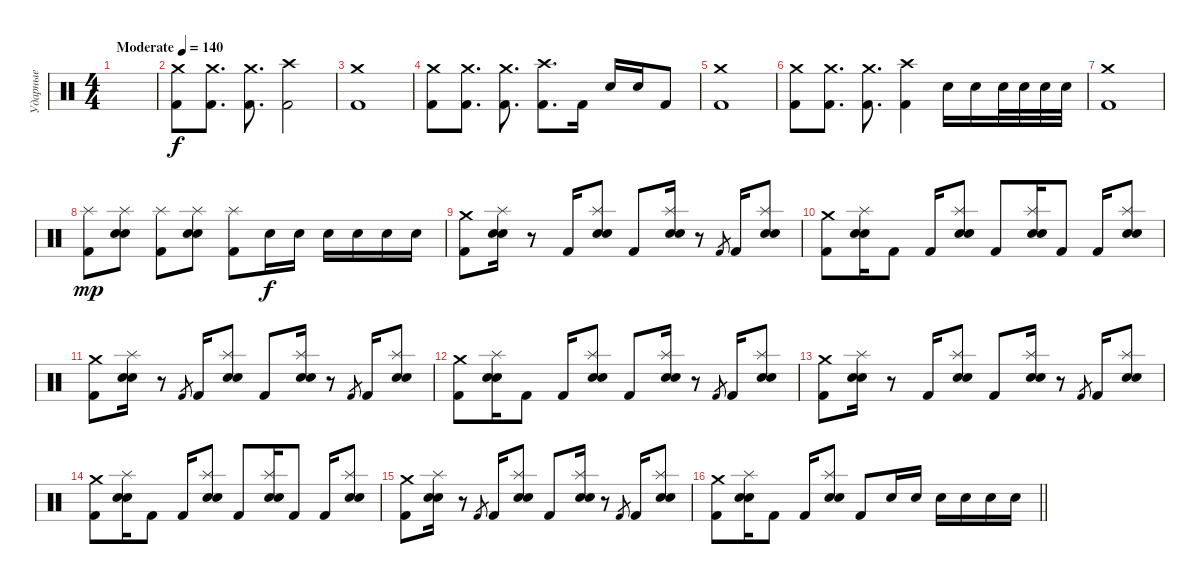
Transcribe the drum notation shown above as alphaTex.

\track ("Ударные" "Ударные") {instrument percussion}
\staff {score}
\articulation defaults
\ts (4 4)
\tempo (140 "Moderate")
\clef neutral
\ks c
|
("Crash medium (hit)" "Kick (hit) 2").8 ("Crash medium (hit)" "Kick (hit) 2").8{d} ("Crash medium (hit)" "Kick (hit) 2").8{d} ("Crash high (hit)" "Kick (hit) 2").2 |
("Crash medium (hit)" "Kick (hit) 2").1 |
("Crash medium (hit)" "Kick (hit) 2").8 ("Crash medium (hit)" "Kick (hit) 2").8{d} ("Crash medium (hit)" "Kick (hit) 2").8{d} ("Crash high (hit)" "Kick (hit) 2").8{d} "Kick (hit) 2".16 "Electric Snare (hit)".16 "Electric Snare (hit)".16 "Kick (hit) 2".8 |
("Crash medium (hit)" "Kick (hit) 2").1 |
("Crash medium (hit)" "Kick (hit) 2").8 ("Crash medium (hit)" "Kick (hit) 2").8{d} ("Crash medium (hit)" "Kick (hit) 2").8{d} ("Crash high (hit)" "Kick (hit) 2").4 "Electric Snare (hit)".16 "Electric Snare (hit)".16 "Electric Snare (hit)".32 "Electric Snare (hit)".32 "Electric Snare (hit)".32 "Electric Snare (hit)".32 |
("Crash medium (hit)" "Kick (hit) 2").1 |
("Splash (hit)" "Kick (hit) 2").8{dy mp} ("Splash (hit)" "Electric Snare (hit)" "Snare (hit) 2").8 ("Splash (hit)" "Kick (hit) 2").8 ("Splash (hit)" "Electric Snare (hit)" "Snare (hit) 2").8 ("Splash (hit)" "Kick (hit) 2").8 "Electric Snare (hit)".16{dy f} "Electric Snare (hit)".16 "Electric Snare (hit)".16 "Electric Snare (hit)".16 "Electric Snare (hit)".16 "Electric Snare (hit)".16 |
("Crash medium (hit)" "Kick (hit) 2").8 ("Splash (hit)" "Electric Snare (hit)" "Snare (hit) 2").16 r.8 "Kick (hit) 2".16 ("Splash (hit)" "Electric Snare (hit)" "Snare (hit) 2").8 "Kick (hit) 2".8 ("Splash (hit)" "Electric Snare (hit)" "Snare (hit) 2").16 r.8 "Kick (hit) 2".8{gr} "Kick (hit) 2".16 ("Splash (hit)" "Electric Snare (hit)" "Snare (hit) 2").8 |
("Crash medium (hit)" "Kick (hit) 2").8 ("Splash (hit)" "Electric Snare (hit)" "Snare (hit) 2").16 "Kick (hit) 2".8 "Kick (hit) 2".16 ("Splash (hit)" "Electric Snare (hit)" "Snare (hit) 2").8 "Kick (hit) 2".8 ("Splash (hit)" "Electric Snare (hit)" "Snare (hit) 2").16 "Kick (hit) 2".8 "Kick (hit) 2".16 ("Splash (hit)" "Electric Snare (hit)" "Snare (hit) 2").8 |
("Crash medium (hit)" "Kick (hit) 2").8 ("Splash (hit)" "Electric Snare (hit)" "Snare (hit) 2").16 r.8 "Kick (hit) 2".8{gr} "Kick (hit) 2".16 ("Splash (hit)" "Electric Snare (hit)" "Snare (hit) 2").8 "Kick (hit) 2".8 ("Splash (hit)" "Electric Snare (hit)" "Snare (hit) 2").16 r.8 "Kick (hit) 2".8{gr} "Kick (hit) 2".16 ("Splash (hit)" "Electric Snare (hit)" "Snare (hit) 2").8 |
("Crash medium (hit)" "Kick (hit) 2").8 ("Splash (hit)" "Electric Snare (hit)" "Snare (hit) 2").16 "Kick (hit) 2".8 "Kick (hit) 2".16 ("Splash (hit)" "Electric Snare (hit)" "Snare (hit) 2").8 "Kick (hit) 2".8 ("Splash (hit)" "Electric Snare (hit)" "Snare (hit) 2").16 r.8 "Kick (hit) 2".8{gr} "Kick (hit) 2".16 ("Splash (hit)" "Electric Snare (hit)" "Snare (hit) 2").8 |
("Crash medium (hit)" "Kick (hit) 2").8 ("Splash (hit)" "Electric Snare (hit)" "Snare (hit) 2").16 r.8 "Kick (hit) 2".16 ("Splash (hit)" "Electric Snare (hit)" "Snare (hit) 2").8 "Kick (hit) 2".8 ("Splash (hit)" "Electric Snare (hit)" "Snare (hit) 2").16 r.8 "Kick (hit) 2".8{gr} "Kick (hit) 2".16 ("Splash (hit)" "Electric Snare (hit)" "Snare (hit) 2").8 |
("Crash medium (hit)" "Kick (hit) 2").8 ("Splash (hit)" "Electric Snare (hit)" "Snare (hit) 2").16 "Kick (hit) 2".8 "Kick (hit) 2".16 ("Splash (hit)" "Electric Snare (hit)" "Snare (hit) 2").8 "Kick (hit) 2".8 ("Splash (hit)" "Electric Snare (hit)" "Snare (hit) 2").16 "Kick (hit) 2".8 "Kick (hit) 2".16 ("Splash (hit)" "Electric Snare (hit)" "Snare (hit) 2").8 |
("Crash medium (hit)" "Kick (hit) 2").8 ("Splash (hit)" "Electric Snare (hit)" "Snare (hit) 2").16 r.8 "Kick (hit) 2".8{gr} "Kick (hit) 2".16 ("Splash (hit)" "Electric Snare (hit)" "Snare (hit) 2").8 "Kick (hit) 2".8 ("Splash (hit)" "Electric Snare (hit)" "Snare (hit) 2").16 r.8 "Kick (hit) 2".8{gr} "Kick (hit) 2".16 ("Splash (hit)" "Electric Snare (hit)" "Snare (hit) 2").8 |
\barLineRight lightlight
("Crash medium (hit)" "Kick (hit) 2").8 ("Splash (hit)" "Electric Snare (hit)" "Snare (hit) 2").16 "Kick (hit) 2".8 "Kick (hit) 2".16 ("Splash (hit)" "Electric Snare (hit)" "Snare (hit) 2").8 "Kick (hit) 2".8 "Electric Snare (hit)".16 "Electric Snare (hit)".16 "Electric Snare (hit)".16 "Electric Snare (hit)".16 "Electric Snare (hit)".16 "Electric Snare (hit)".16
